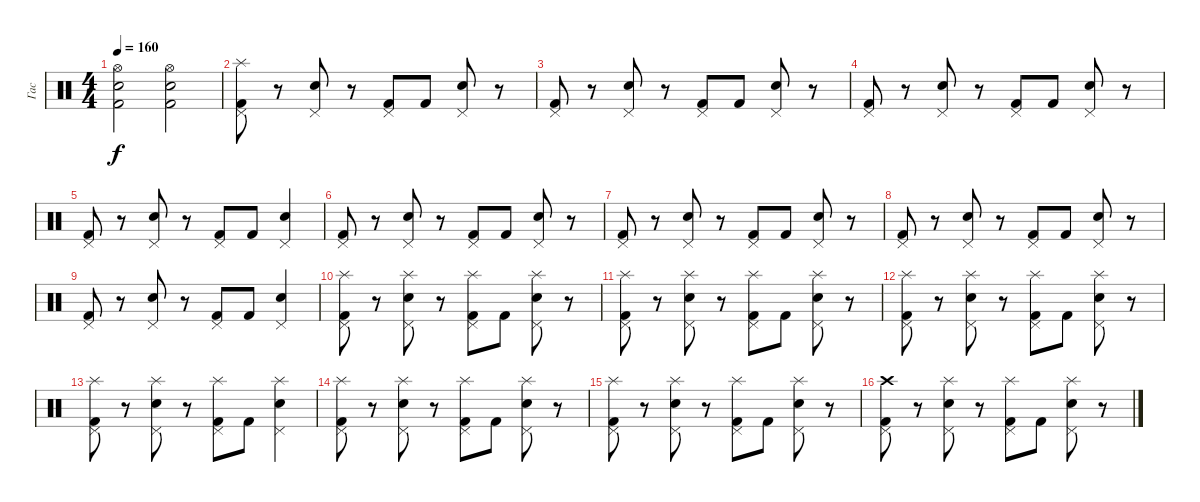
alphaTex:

\track ("Гас" "Гас") {instrument percussion}
\staff {score}
\articulation defaults
\ts (4 4)
\tempo 160
\clef neutral
\ks c
("Hi-Hat (open)" "Electric Snare (hit)" "Kick (hit) 2").2{dy f} ("Hi-Hat (open)" "Electric Snare (hit)" "Kick (hit) 2").2 |
("Pedal Hi-Hat (hit)" "Splash (hit)" "Kick (hit) 2").8 r.8 ("Pedal Hi-Hat (hit)" "Electric Snare (hit)").8 r.8 ("Pedal Hi-Hat (hit)" "Kick (hit) 2").8 "Kick (hit) 2".8 ("Pedal Hi-Hat (hit)" "Electric Snare (hit)").8 r.8 |
("Pedal Hi-Hat (hit)" "Kick (hit) 2").8 r.8 ("Pedal Hi-Hat (hit)" "Electric Snare (hit)").8 r.8 ("Pedal Hi-Hat (hit)" "Kick (hit) 2").8 "Kick (hit) 2".8 ("Pedal Hi-Hat (hit)" "Electric Snare (hit)").8 r.8 |
("Pedal Hi-Hat (hit)" "Kick (hit) 2").8 r.8 ("Pedal Hi-Hat (hit)" "Electric Snare (hit)").8 r.8 ("Pedal Hi-Hat (hit)" "Kick (hit) 2").8 "Kick (hit) 2".8 ("Pedal Hi-Hat (hit)" "Electric Snare (hit)").8 r.8 |
("Pedal Hi-Hat (hit)" "Kick (hit) 2").8 r.8 ("Pedal Hi-Hat (hit)" "Electric Snare (hit)").8 r.8 ("Pedal Hi-Hat (hit)" "Kick (hit) 2").8 "Kick (hit) 2".8 ("Pedal Hi-Hat (hit)" "Electric Snare (hit)").4 |
("Pedal Hi-Hat (hit)" "Kick (hit) 2").8 r.8 ("Pedal Hi-Hat (hit)" "Electric Snare (hit)").8 r.8 ("Pedal Hi-Hat (hit)" "Kick (hit) 2").8 "Kick (hit) 2".8 ("Pedal Hi-Hat (hit)" "Electric Snare (hit)").8 r.8 |
("Pedal Hi-Hat (hit)" "Kick (hit) 2").8 r.8 ("Pedal Hi-Hat (hit)" "Electric Snare (hit)").8 r.8 ("Pedal Hi-Hat (hit)" "Kick (hit) 2").8 "Kick (hit) 2".8 ("Pedal Hi-Hat (hit)" "Electric Snare (hit)").8 r.8 |
("Pedal Hi-Hat (hit)" "Kick (hit) 2").8 r.8 ("Pedal Hi-Hat (hit)" "Electric Snare (hit)").8 r.8 ("Pedal Hi-Hat (hit)" "Kick (hit) 2").8 "Kick (hit) 2".8 ("Pedal Hi-Hat (hit)" "Electric Snare (hit)").8 r.8 |
("Pedal Hi-Hat (hit)" "Kick (hit) 2").8 r.8 ("Pedal Hi-Hat (hit)" "Electric Snare (hit)").8 r.8 ("Pedal Hi-Hat (hit)" "Kick (hit) 2").8 "Kick (hit) 2".8 ("Pedal Hi-Hat (hit)" "Electric Snare (hit)").4 |
("Pedal Hi-Hat (hit)" "Splash (hit)" "Kick (hit) 2").8 r.8 ("Pedal Hi-Hat (hit)" "Splash (hit)" "Electric Snare (hit)").8 r.8 ("Pedal Hi-Hat (hit)" "Splash (hit)" "Kick (hit) 2").8 "Kick (hit) 2".8 ("Pedal Hi-Hat (hit)" "Splash (hit)" "Electric Snare (hit)").8 r.8 |
("Pedal Hi-Hat (hit)" "Splash (hit)" "Kick (hit) 2").8 r.8 ("Pedal Hi-Hat (hit)" "Splash (hit)" "Electric Snare (hit)").8 r.8 ("Pedal Hi-Hat (hit)" "Splash (hit)" "Kick (hit) 2").8 "Kick (hit) 2".8 ("Pedal Hi-Hat (hit)" "Splash (hit)" "Electric Snare (hit)").8 r.8 |
("Pedal Hi-Hat (hit)" "Splash (hit)" "Kick (hit) 2").8 r.8 ("Pedal Hi-Hat (hit)" "Splash (hit)" "Electric Snare (hit)").8 r.8 ("Pedal Hi-Hat (hit)" "Splash (hit)" "Kick (hit) 2").8 "Kick (hit) 2".8 ("Pedal Hi-Hat (hit)" "Splash (hit)" "Electric Snare (hit)").8 r.8 |
("Pedal Hi-Hat (hit)" "Splash (hit)" "Kick (hit) 2").8 r.8 ("Pedal Hi-Hat (hit)" "Splash (hit)" "Electric Snare (hit)").8 r.8 ("Pedal Hi-Hat (hit)" "Splash (hit)" "Kick (hit) 2").8 "Kick (hit) 2".8 ("Pedal Hi-Hat (hit)" "Splash (hit)" "Electric Snare (hit)").4 |
("Pedal Hi-Hat (hit)" "Splash (hit)" "Kick (hit) 2").8 r.8 ("Pedal Hi-Hat (hit)" "Splash (hit)" "Electric Snare (hit)").8 r.8 ("Pedal Hi-Hat (hit)" "Splash (hit)" "Kick (hit) 2").8 "Kick (hit) 2".8 ("Pedal Hi-Hat (hit)" "Splash (hit)" "Electric Snare (hit)").8 r.8 |
("Pedal Hi-Hat (hit)" "Splash (hit)" "Kick (hit) 2").8 r.8 ("Pedal Hi-Hat (hit)" "Splash (hit)" "Electric Snare (hit)").8 r.8 ("Pedal Hi-Hat (hit)" "Splash (hit)" "Kick (hit) 2").8 "Kick (hit) 2".8 ("Pedal Hi-Hat (hit)" "Splash (hit)" "Electric Snare (hit)").8 r.8 |
("Pedal Hi-Hat (hit)" "Crash high (hit)" "Kick (hit) 2").8 r.8 ("Pedal Hi-Hat (hit)" "Splash (hit)" "Electric Snare (hit)").8 r.8 ("Pedal Hi-Hat (hit)" "Splash (hit)" "Kick (hit) 2").8 "Kick (hit) 2".8 ("Pedal Hi-Hat (hit)" "Splash (hit)" "Electric Snare (hit)").8 r.8
